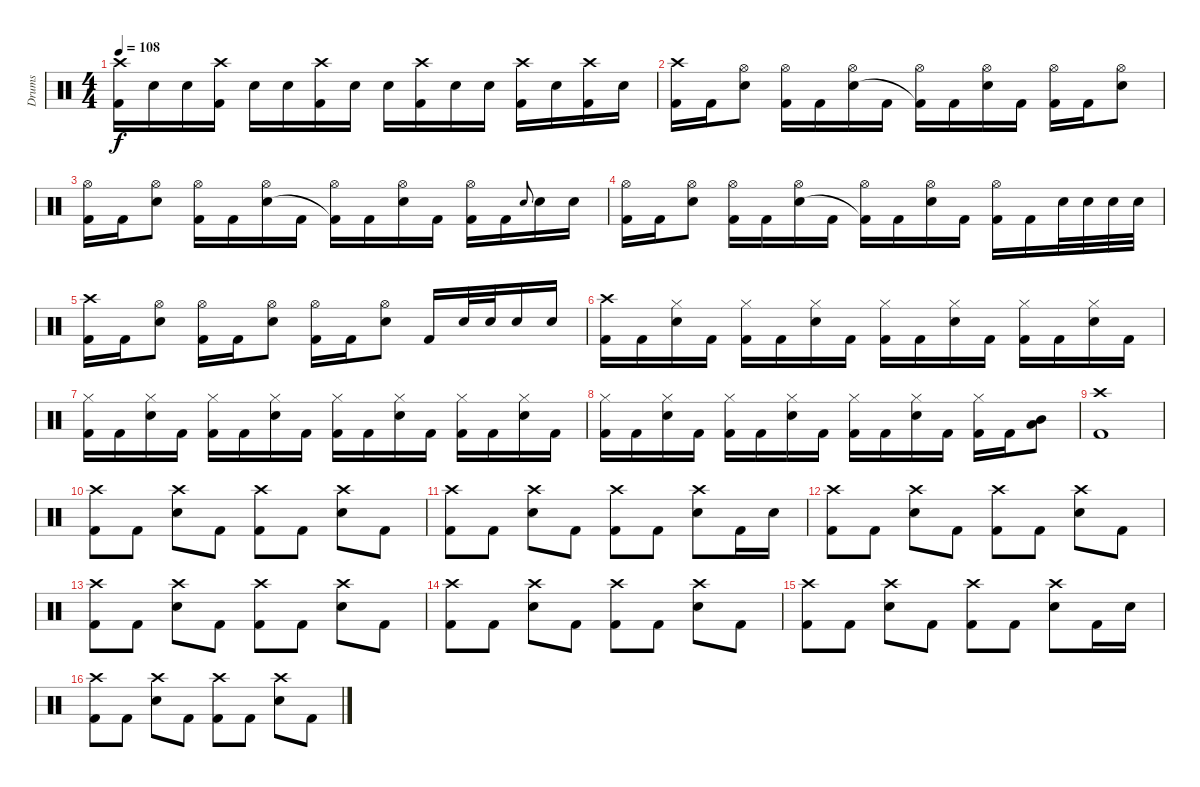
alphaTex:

\track ("Drums" "Drums") {instrument percussion}
\staff {score}
\articulation defaults
\ts (4 4)
\tempo 108
\clef neutral
\ks c
("Crash high (hit)" "Kick (hit) 2").16{dy f} "Electric Snare (hit)".16 "Electric Snare (hit)".16 ("Crash high (hit)" "Kick (hit) 2").16 "Electric Snare (hit)".16 "Electric Snare (hit)".16 ("Crash high (hit)" "Kick (hit) 2").16 "Electric Snare (hit)".16 "Electric Snare (hit)".16 ("Crash high (hit)" "Kick (hit) 2").16 "Electric Snare (hit)".16 "Electric Snare (hit)".16 ("Crash high (hit)" "Kick (hit) 2").16 "Electric Snare (hit)".16 ("Crash high (hit)" "Kick (hit) 2").16 "Electric Snare (hit)".16 |
("Crash high (hit)" "Kick (hit) 2").16 "Kick (hit) 2".16 ("Hi-Hat (open)" "Electric Snare (hit)").8 ("Hi-Hat (open)" "Kick (hit) 2").16 "Kick (hit) 2".16 ("Hi-Hat (open)" "Electric Snare (hit)").16 "Kick (hit) 2".16 ("Hi-Hat (open)" "Kick (hit) 2"{t}).16 "Kick (hit) 2".16 ("Hi-Hat (open)" "Electric Snare (hit)").16 "Kick (hit) 2".16 ("Hi-Hat (open)" "Kick (hit) 2").16 "Kick (hit) 2".16 ("Hi-Hat (open)" "Electric Snare (hit)").8 |
("Hi-Hat (open)" "Kick (hit) 2").16 "Kick (hit) 2".16 ("Hi-Hat (open)" "Electric Snare (hit)").8 ("Hi-Hat (open)" "Kick (hit) 2").16 "Kick (hit) 2".16 ("Hi-Hat (open)" "Electric Snare (hit)").16 "Kick (hit) 2".16 ("Hi-Hat (open)" "Kick (hit) 2"{t}).16 "Kick (hit) 2".16 ("Hi-Hat (open)" "Electric Snare (hit)").16 "Kick (hit) 2".16 ("Hi-Hat (open)" "Kick (hit) 2").16 "Kick (hit) 2".16 "Electric Snare (hit)".8{gr onbeat} "Electric Snare (hit)".16 "Electric Snare (hit)".16 |
("Hi-Hat (open)" "Kick (hit) 2").16 "Kick (hit) 2".16 ("Hi-Hat (open)" "Electric Snare (hit)").8 ("Hi-Hat (open)" "Kick (hit) 2").16 "Kick (hit) 2".16 ("Hi-Hat (open)" "Electric Snare (hit)").16 "Kick (hit) 2".16 ("Hi-Hat (open)" "Kick (hit) 2"{t}).16 "Kick (hit) 2".16 ("Hi-Hat (open)" "Electric Snare (hit)").16 "Kick (hit) 2".16 ("Hi-Hat (open)" "Kick (hit) 2").16 "Kick (hit) 2".16 "Electric Snare (hit)".32 "Electric Snare (hit)".32 "Electric Snare (hit)".32 "Electric Snare (hit)".32 |
("Crash high (hit)" "Kick (hit) 2").16 "Kick (hit) 2".16 ("Hi-Hat (open)" "Electric Snare (hit)").8 ("Hi-Hat (open)" "Kick (hit) 2").16 "Kick (hit) 2".16 ("Hi-Hat (open)" "Electric Snare (hit)").8 ("Hi-Hat (open)" "Kick (hit) 2").16 "Kick (hit) 2".16 ("Hi-Hat (open)" "Electric Snare (hit)").8 "Kick (hit) 2".16 "Electric Snare (hit)".32 "Electric Snare (hit)".32 "Electric Snare (hit)".16 "Electric Snare (hit)".16 |
("Crash high (hit)" "Kick (hit) 2").16 "Kick (hit) 2".16 ("Hi-Hat (closed)" "Electric Snare (hit)").16 "Kick (hit) 2".16 ("Hi-Hat (closed)" "Kick (hit) 2").16 "Kick (hit) 2".16 ("Hi-Hat (closed)" "Electric Snare (hit)").16 "Kick (hit) 2".16 ("Hi-Hat (closed)" "Kick (hit) 2").16 "Kick (hit) 2".16 ("Hi-Hat (closed)" "Electric Snare (hit)").16 "Kick (hit) 2".16 ("Hi-Hat (closed)" "Kick (hit) 2").16 "Kick (hit) 2".16 ("Hi-Hat (closed)" "Electric Snare (hit)").16 "Kick (hit) 2".16 |
("Hi-Hat (closed)" "Kick (hit) 2").16 "Kick (hit) 2".16 ("Hi-Hat (closed)" "Electric Snare (hit)").16 "Kick (hit) 2".16 ("Hi-Hat (closed)" "Kick (hit) 2").16 "Kick (hit) 2".16 ("Hi-Hat (closed)" "Electric Snare (hit)").16 "Kick (hit) 2".16 ("Hi-Hat (closed)" "Kick (hit) 2").16 "Kick (hit) 2".16 ("Hi-Hat (closed)" "Electric Snare (hit)").16 "Kick (hit) 2".16 ("Hi-Hat (closed)" "Kick (hit) 2").16 "Kick (hit) 2".16 ("Hi-Hat (closed)" "Electric Snare (hit)").16 "Kick (hit) 2".16 |
("Hi-Hat (closed)" "Kick (hit) 2").16 "Kick (hit) 2".16 ("Hi-Hat (closed)" "Electric Snare (hit)").16 "Kick (hit) 2".16 ("Hi-Hat (closed)" "Kick (hit) 2").16 "Kick (hit) 2".16 ("Hi-Hat (closed)" "Electric Snare (hit)").16 "Kick (hit) 2".16 ("Hi-Hat (closed)" "Kick (hit) 2").16 "Kick (hit) 2".16 ("Hi-Hat (closed)" "Electric Snare (hit)").16 "Kick (hit) 2".16 ("Hi-Hat (closed)" "Kick (hit) 2").16 "Kick (hit) 2".16 ("Mid Tom (hit)" "Low Tom (hit)").8 |
("Crash high (hit)" "Kick (hit) 2").1 |
("Crash high (hit)" "Kick (hit) 2").8 "Kick (hit) 2".8 ("Crash high (hit)" "Electric Snare (hit)").8 "Kick (hit) 2".8 ("Crash high (hit)" "Kick (hit) 2").8 "Kick (hit) 2".8 ("Crash high (hit)" "Electric Snare (hit)").8 "Kick (hit) 2".8 |
("Crash high (hit)" "Kick (hit) 2").8 "Kick (hit) 2".8 ("Crash high (hit)" "Electric Snare (hit)").8 "Kick (hit) 2".8 ("Crash high (hit)" "Kick (hit) 2").8 "Kick (hit) 2".8 ("Crash high (hit)" "Electric Snare (hit)").8 "Kick (hit) 2".16 "Electric Snare (hit)".16 |
("Crash high (hit)" "Kick (hit) 2").8 "Kick (hit) 2".8 ("Crash high (hit)" "Electric Snare (hit)").8 "Kick (hit) 2".8 ("Crash high (hit)" "Kick (hit) 2").8 "Kick (hit) 2".8 ("Crash high (hit)" "Electric Snare (hit)").8 "Kick (hit) 2".8 |
("Crash high (hit)" "Kick (hit) 2").8 "Kick (hit) 2".8 ("Crash high (hit)" "Electric Snare (hit)").8 "Kick (hit) 2".8 ("Crash high (hit)" "Kick (hit) 2").8 "Kick (hit) 2".8 ("Crash high (hit)" "Electric Snare (hit)").8 "Kick (hit) 2".8 |
("Crash high (hit)" "Kick (hit) 2").8 "Kick (hit) 2".8 ("Crash high (hit)" "Electric Snare (hit)").8 "Kick (hit) 2".8 ("Crash high (hit)" "Kick (hit) 2").8 "Kick (hit) 2".8 ("Crash high (hit)" "Electric Snare (hit)").8 "Kick (hit) 2".8 |
("Crash high (hit)" "Kick (hit) 2").8 "Kick (hit) 2".8 ("Crash high (hit)" "Electric Snare (hit)").8 "Kick (hit) 2".8 ("Crash high (hit)" "Kick (hit) 2").8 "Kick (hit) 2".8 ("Crash high (hit)" "Electric Snare (hit)").8 "Kick (hit) 2".16 "Electric Snare (hit)".16 |
("Crash high (hit)" "Kick (hit) 2").8 "Kick (hit) 2".8 ("Crash high (hit)" "Electric Snare (hit)").8 "Kick (hit) 2".8 ("Crash high (hit)" "Kick (hit) 2").8 "Kick (hit) 2".8 ("Crash high (hit)" "Electric Snare (hit)").8 "Kick (hit) 2".8
